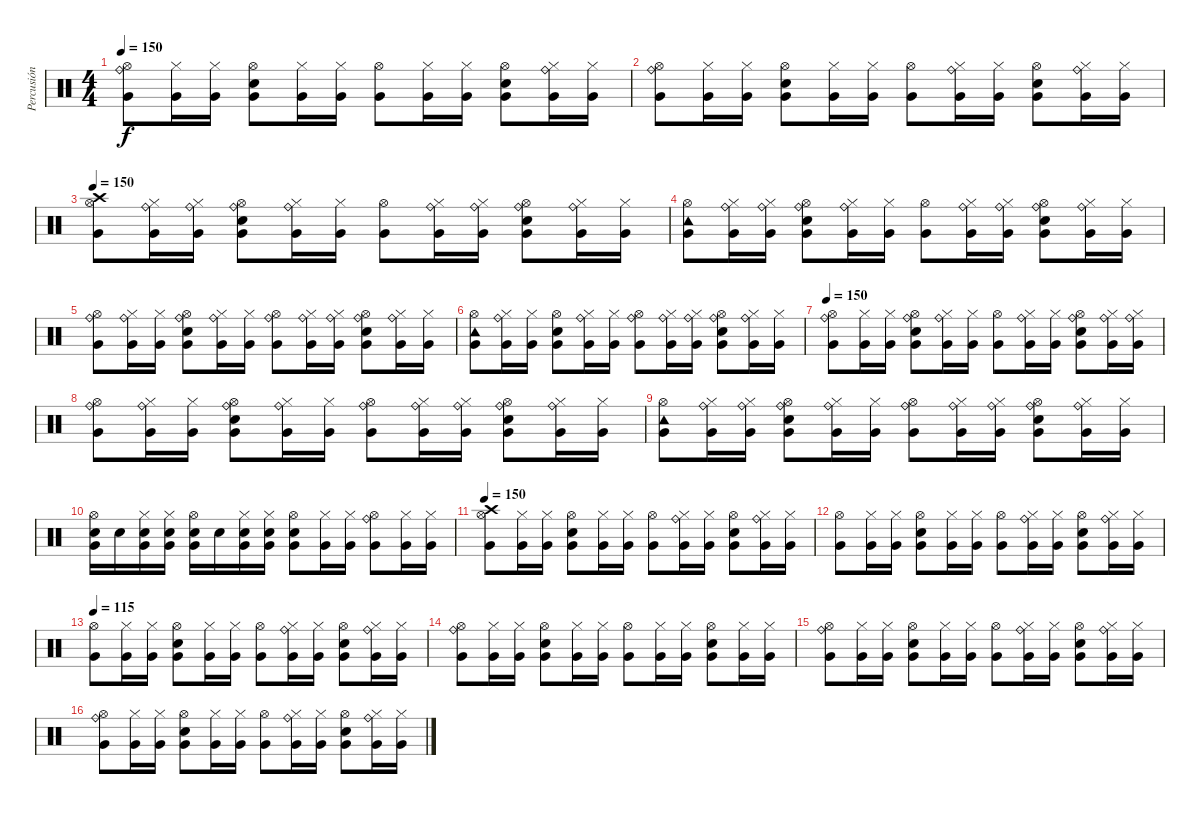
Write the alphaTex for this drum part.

\track ("Percusión" "Percusión") {instrument percussion}
\staff {score}
\articulation defaults
\ts (4 4)
\tempo 150
\clef neutral
\ks c
("Ride (bell)" "Hi-Hat (open)" "Very Low Tom (hit)").8{dy f} ("Hi-Hat (closed)" "Very Low Tom (hit)").16 ("Hi-Hat (closed)" "Very Low Tom (hit)").16 ("Hi-Hat (open)" "Electric Snare (hit)" "Very Low Tom (hit)").8 ("Hi-Hat (closed)" "Very Low Tom (hit)").16 ("Hi-Hat (closed)" "Very Low Tom (hit)").16 ("Hi-Hat (open)" "Very Low Tom (hit)").8 ("Hi-Hat (closed)" "Very Low Tom (hit)").16 ("Hi-Hat (closed)" "Very Low Tom (hit)").16 ("Hi-Hat (open)" "Electric Snare (hit)" "Very Low Tom (hit)").8 ("Ride (bell)" "Hi-Hat (closed)" "Very Low Tom (hit)").16 ("Hi-Hat (closed)" "Very Low Tom (hit)").16 |
("Ride (bell)" "Hi-Hat (open)" "Very Low Tom (hit)").8 ("Hi-Hat (closed)" "Very Low Tom (hit)").16 ("Hi-Hat (closed)" "Very Low Tom (hit)").16 ("Hi-Hat (open)" "Electric Snare (hit)" "Very Low Tom (hit)").8 ("Hi-Hat (closed)" "Very Low Tom (hit)").16 ("Hi-Hat (closed)" "Very Low Tom (hit)").16 ("Hi-Hat (open)" "Very Low Tom (hit)").8 ("Ride (bell)" "Hi-Hat (closed)" "Very Low Tom (hit)").16 ("Hi-Hat (closed)" "Very Low Tom (hit)").16 ("Hi-Hat (open)" "Electric Snare (hit)" "Very Low Tom (hit)").8 ("Ride (bell)" "Hi-Hat (closed)" "Very Low Tom (hit)").16 ("Hi-Hat (closed)" "Very Low Tom (hit)").16 |
\tempo 150
("Crash high (hit)" "Hi-Hat (open)" "Very Low Tom (hit)").8 ("Ride (bell)" "Hi-Hat (closed)" "Very Low Tom (hit)").16 ("Ride (bell)" "Hi-Hat (closed)" "Very Low Tom (hit)").16 ("Ride (bell)" "Hi-Hat (open)" "Electric Snare (hit)" "Very Low Tom (hit)").8 ("Ride (bell)" "Hi-Hat (closed)" "Very Low Tom (hit)").16 ("Hi-Hat (closed)" "Very Low Tom (hit)").16 ("Hi-Hat (open)" "Very Low Tom (hit)").8 ("Ride (bell)" "Hi-Hat (closed)" "Very Low Tom (hit)").16 ("Ride (bell)" "Hi-Hat (closed)" "Very Low Tom (hit)").16 ("Ride (bell)" "Hi-Hat (open)" "Electric Snare (hit)" "Very Low Tom (hit)").8 ("Ride (bell)" "Hi-Hat (closed)" "Very Low Tom (hit)").16 ("Hi-Hat (closed)" "Very Low Tom (hit)").16 |
("Tambourine (hit)" "Hi-Hat (open)" "Very Low Tom (hit)").8 ("Ride (bell)" "Hi-Hat (closed)" "Very Low Tom (hit)").16 ("Ride (bell)" "Hi-Hat (closed)" "Very Low Tom (hit)").16 ("Ride (bell)" "Hi-Hat (open)" "Electric Snare (hit)" "Very Low Tom (hit)").8 ("Ride (bell)" "Hi-Hat (closed)" "Very Low Tom (hit)").16 ("Hi-Hat (closed)" "Very Low Tom (hit)").16 ("Hi-Hat (open)" "Very Low Tom (hit)").8 ("Ride (bell)" "Hi-Hat (closed)" "Very Low Tom (hit)").16 ("Ride (bell)" "Hi-Hat (closed)" "Very Low Tom (hit)").16 ("Ride (bell)" "Hi-Hat (open)" "Electric Snare (hit)" "Very Low Tom (hit)").8 ("Ride (bell)" "Hi-Hat (closed)" "Very Low Tom (hit)").16 ("Hi-Hat (closed)" "Very Low Tom (hit)").16 |
("Ride (bell)" "Hi-Hat (open)" "Very Low Tom (hit)").8 ("Ride (bell)" "Hi-Hat (closed)" "Very Low Tom (hit)").16 ("Hi-Hat (closed)" "Very Low Tom (hit)").16 ("Ride (bell)" "Hi-Hat (open)" "Electric Snare (hit)" "Very Low Tom (hit)").8 ("Ride (bell)" "Hi-Hat (closed)" "Very Low Tom (hit)").16 ("Hi-Hat (closed)" "Very Low Tom (hit)").16 ("Ride (bell)" "Hi-Hat (open)" "Very Low Tom (hit)").8 ("Ride (bell)" "Hi-Hat (closed)" "Very Low Tom (hit)").16 ("Ride (bell)" "Hi-Hat (closed)" "Very Low Tom (hit)").16 ("Ride (bell)" "Hi-Hat (open)" "Electric Snare (hit)" "Very Low Tom (hit)").8 ("Ride (bell)" "Hi-Hat (closed)" "Very Low Tom (hit)").16 ("Hi-Hat (closed)" "Very Low Tom (hit)").16 |
("Tambourine (hit)" "Hi-Hat (open)" "Very Low Tom (hit)").8 ("Ride (bell)" "Hi-Hat (closed)" "Very Low Tom (hit)").16 ("Hi-Hat (closed)" "Very Low Tom (hit)").16 ("Hi-Hat (open)" "Electric Snare (hit)" "Very Low Tom (hit)").8 ("Ride (bell)" "Hi-Hat (closed)" "Very Low Tom (hit)").16 ("Hi-Hat (closed)" "Very Low Tom (hit)").16 ("Ride (bell)" "Hi-Hat (open)" "Very Low Tom (hit)").8 ("Ride (bell)" "Hi-Hat (closed)" "Very Low Tom (hit)").16 ("Ride (bell)" "Hi-Hat (closed)" "Very Low Tom (hit)").16 ("Ride (bell)" "Hi-Hat (open)" "Electric Snare (hit)" "Very Low Tom (hit)").8 ("Ride (bell)" "Hi-Hat (closed)" "Very Low Tom (hit)").16 ("Hi-Hat (closed)" "Very Low Tom (hit)").16 |
\tempo 150
("Ride (bell)" "Hi-Hat (open)" "Very Low Tom (hit)").8 ("Hi-Hat (closed)" "Very Low Tom (hit)").16 ("Hi-Hat (closed)" "Very Low Tom (hit)").16 ("Ride (bell)" "Hi-Hat (open)" "Electric Snare (hit)" "Very Low Tom (hit)").8 ("Ride (bell)" "Hi-Hat (closed)" "Very Low Tom (hit)").16 ("Hi-Hat (closed)" "Very Low Tom (hit)").16 ("Hi-Hat (open)" "Very Low Tom (hit)").8 ("Ride (bell)" "Hi-Hat (closed)" "Very Low Tom (hit)").16 ("Hi-Hat (closed)" "Very Low Tom (hit)").16 ("Ride (bell)" "Hi-Hat (open)" "Electric Snare (hit)" "Very Low Tom (hit)").8 ("Ride (bell)" "Hi-Hat (closed)" "Very Low Tom (hit)").16 ("Ride (bell)" "Hi-Hat (closed)" "Very Low Tom (hit)").16 |
("Ride (bell)" "Hi-Hat (open)" "Very Low Tom (hit)").8 ("Ride (bell)" "Hi-Hat (closed)" "Very Low Tom (hit)").16 ("Hi-Hat (closed)" "Very Low Tom (hit)").16 ("Ride (bell)" "Hi-Hat (open)" "Electric Snare (hit)" "Very Low Tom (hit)").8 ("Ride (bell)" "Hi-Hat (closed)" "Very Low Tom (hit)").16 ("Hi-Hat (closed)" "Very Low Tom (hit)").16 ("Ride (bell)" "Hi-Hat (open)" "Very Low Tom (hit)").8 ("Ride (bell)" "Hi-Hat (closed)" "Very Low Tom (hit)").16 ("Ride (bell)" "Hi-Hat (closed)" "Very Low Tom (hit)").16 ("Ride (bell)" "Hi-Hat (open)" "Electric Snare (hit)" "Very Low Tom (hit)").8 ("Ride (bell)" "Hi-Hat (closed)" "Very Low Tom (hit)").16 ("Hi-Hat (closed)" "Very Low Tom (hit)").16 |
("Tambourine (hit)" "Hi-Hat (open)" "Very Low Tom (hit)").8 ("Ride (bell)" "Hi-Hat (closed)" "Very Low Tom (hit)").16 ("Ride (bell)" "Hi-Hat (closed)" "Very Low Tom (hit)").16 ("Ride (bell)" "Hi-Hat (open)" "Electric Snare (hit)" "Very Low Tom (hit)").8 ("Ride (bell)" "Hi-Hat (closed)" "Very Low Tom (hit)").16 ("Hi-Hat (closed)" "Very Low Tom (hit)").16 ("Ride (bell)" "Hi-Hat (open)" "Very Low Tom (hit)").8 ("Ride (bell)" "Hi-Hat (closed)" "Very Low Tom (hit)").16 ("Ride (bell)" "Hi-Hat (closed)" "Very Low Tom (hit)").16 ("Ride (bell)" "Hi-Hat (open)" "Electric Snare (hit)" "Very Low Tom (hit)").8 ("Ride (bell)" "Hi-Hat (closed)" "Very Low Tom (hit)").16 ("Hi-Hat (closed)" "Very Low Tom (hit)").16 |
("Hi-Hat (open)" "Electric Snare (hit)" "Very Low Tom (hit)").16 "Electric Snare (hit)".16 ("Hi-Hat (closed)" "Electric Snare (hit)" "Very Low Tom (hit)").16 ("Hi-Hat (closed)" "Electric Snare (hit)" "Very Low Tom (hit)").16 ("Hi-Hat (open)" "Electric Snare (hit)" "Very Low Tom (hit)").16 "Electric Snare (hit)".16 ("Hi-Hat (closed)" "Electric Snare (hit)" "Very Low Tom (hit)").16 ("Hi-Hat (closed)" "Electric Snare (hit)" "Very Low Tom (hit)").16 ("Hi-Hat (open)" "Electric Snare (hit)" "Very Low Tom (hit)").8 ("Hi-Hat (closed)" "Very Low Tom (hit)").16 ("Hi-Hat (closed)" "Very Low Tom (hit)").16 ("Ride (bell)" "Hi-Hat (open)" "Very Low Tom (hit)").8 ("Hi-Hat (closed)" "Very Low Tom (hit)").16 ("Hi-Hat (closed)" "Very Low Tom (hit)").16 |
\tempo 150
("Crash high (hit)" "Hi-Hat (open)" "Very Low Tom (hit)").8 ("Hi-Hat (closed)" "Very Low Tom (hit)").16 ("Hi-Hat (closed)" "Very Low Tom (hit)").16 ("Hi-Hat (open)" "Electric Snare (hit)" "Very Low Tom (hit)").8 ("Hi-Hat (closed)" "Very Low Tom (hit)").16 ("Hi-Hat (closed)" "Very Low Tom (hit)").16 ("Hi-Hat (open)" "Very Low Tom (hit)").8 ("Ride (bell)" "Hi-Hat (closed)" "Very Low Tom (hit)").16 ("Hi-Hat (closed)" "Very Low Tom (hit)").16 ("Hi-Hat (open)" "Electric Snare (hit)" "Very Low Tom (hit)").8 ("Ride (bell)" "Hi-Hat (closed)" "Very Low Tom (hit)").16 ("Hi-Hat (closed)" "Very Low Tom (hit)").16 |
("Hi-Hat (open)" "Very Low Tom (hit)").8 ("Hi-Hat (closed)" "Very Low Tom (hit)").16 ("Hi-Hat (closed)" "Very Low Tom (hit)").16 ("Hi-Hat (open)" "Electric Snare (hit)" "Very Low Tom (hit)").8 ("Hi-Hat (closed)" "Very Low Tom (hit)").16 ("Hi-Hat (closed)" "Very Low Tom (hit)").16 ("Hi-Hat (open)" "Very Low Tom (hit)").8 ("Ride (bell)" "Hi-Hat (closed)" "Very Low Tom (hit)").16 ("Hi-Hat (closed)" "Very Low Tom (hit)").16 ("Hi-Hat (open)" "Electric Snare (hit)" "Very Low Tom (hit)").8 ("Ride (bell)" "Hi-Hat (closed)" "Very Low Tom (hit)").16 ("Hi-Hat (closed)" "Very Low Tom (hit)").16 |
\tempo 115
("Hi-Hat (open)" "Very Low Tom (hit)").8 ("Hi-Hat (closed)" "Very Low Tom (hit)").16 ("Hi-Hat (closed)" "Very Low Tom (hit)").16 ("Hi-Hat (open)" "Electric Snare (hit)" "Very Low Tom (hit)").8 ("Hi-Hat (closed)" "Very Low Tom (hit)").16 ("Hi-Hat (closed)" "Very Low Tom (hit)").16 ("Hi-Hat (open)" "Very Low Tom (hit)").8 ("Ride (bell)" "Hi-Hat (closed)" "Very Low Tom (hit)").16 ("Hi-Hat (closed)" "Very Low Tom (hit)").16 ("Hi-Hat (open)" "Electric Snare (hit)" "Very Low Tom (hit)").8 ("Ride (bell)" "Hi-Hat (closed)" "Very Low Tom (hit)").16 ("Hi-Hat (closed)" "Very Low Tom (hit)").16 |
("Ride (bell)" "Hi-Hat (open)" "Very Low Tom (hit)").8 ("Hi-Hat (closed)" "Very Low Tom (hit)").16 ("Hi-Hat (closed)" "Very Low Tom (hit)").16 ("Hi-Hat (open)" "Electric Snare (hit)" "Very Low Tom (hit)").8 ("Hi-Hat (closed)" "Very Low Tom (hit)").16 ("Hi-Hat (closed)" "Very Low Tom (hit)").16 ("Hi-Hat (open)" "Very Low Tom (hit)").8 ("Hi-Hat (closed)" "Very Low Tom (hit)").16 ("Hi-Hat (closed)" "Very Low Tom (hit)").16 ("Hi-Hat (open)" "Electric Snare (hit)" "Very Low Tom (hit)").8 ("Hi-Hat (closed)" "Very Low Tom (hit)").16 ("Hi-Hat (closed)" "Very Low Tom (hit)").16 |
("Ride (bell)" "Hi-Hat (open)" "Very Low Tom (hit)").8 ("Hi-Hat (closed)" "Very Low Tom (hit)").16 ("Hi-Hat (closed)" "Very Low Tom (hit)").16 ("Hi-Hat (open)" "Electric Snare (hit)" "Very Low Tom (hit)").8 ("Hi-Hat (closed)" "Very Low Tom (hit)").16 ("Hi-Hat (closed)" "Very Low Tom (hit)").16 ("Hi-Hat (open)" "Very Low Tom (hit)").8 ("Ride (bell)" "Hi-Hat (closed)" "Very Low Tom (hit)").16 ("Hi-Hat (closed)" "Very Low Tom (hit)").16 ("Hi-Hat (open)" "Electric Snare (hit)" "Very Low Tom (hit)").8 ("Ride (bell)" "Hi-Hat (closed)" "Very Low Tom (hit)").16 ("Hi-Hat (closed)" "Very Low Tom (hit)").16 |
("Ride (bell)" "Hi-Hat (open)" "Very Low Tom (hit)").8 ("Hi-Hat (closed)" "Very Low Tom (hit)").16 ("Hi-Hat (closed)" "Very Low Tom (hit)").16 ("Hi-Hat (open)" "Electric Snare (hit)" "Very Low Tom (hit)").8 ("Hi-Hat (closed)" "Very Low Tom (hit)").16 ("Hi-Hat (closed)" "Very Low Tom (hit)").16 ("Hi-Hat (open)" "Very Low Tom (hit)").8 ("Ride (bell)" "Hi-Hat (closed)" "Very Low Tom (hit)").16 ("Hi-Hat (closed)" "Very Low Tom (hit)").16 ("Hi-Hat (open)" "Electric Snare (hit)" "Very Low Tom (hit)").8 ("Ride (bell)" "Hi-Hat (closed)" "Very Low Tom (hit)").16 ("Hi-Hat (closed)" "Very Low Tom (hit)").16
